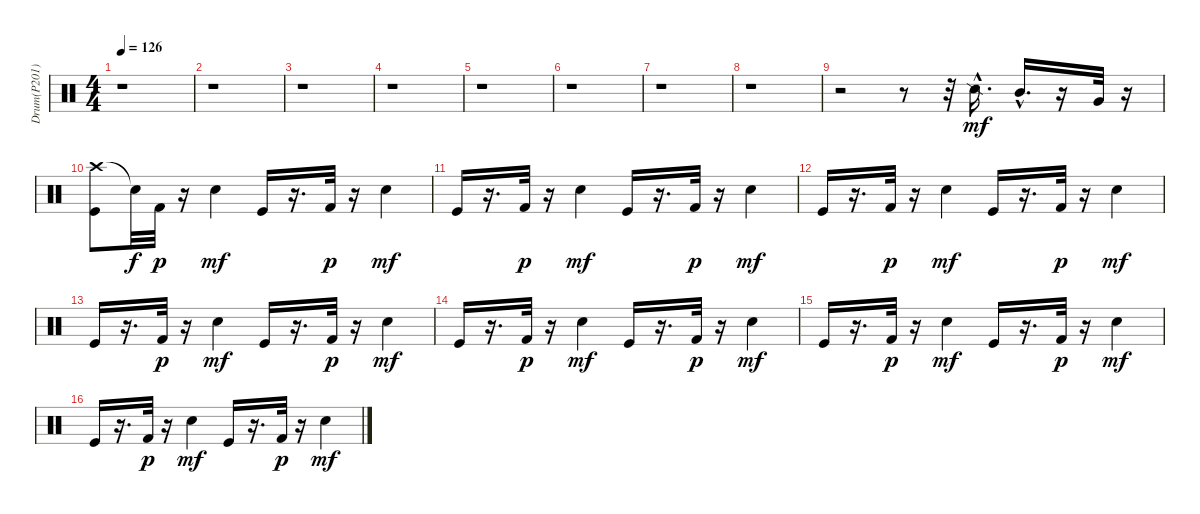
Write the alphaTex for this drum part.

\track ("Drum(P201)" "Drum(P201)") {instrument percussion}
\staff {score}
\articulation defaults
\ts (4 4)
\tempo 126
\clef neutral
\ks c
r.1{dy mf} |
r.1 |
r.1 |
r.1 |
r.1 |
r.1 |
r.1 |
r.1 |
r.2 r.8 r.32 "Snare (side stick) 2"{hac}.16{d} "Mid Tom (hit)"{hac}.16{d} r.16 "Very Low Tom (hit)".32 r.16 |
("Crash high (hit)" "Kick (hit)").8 "Snare (hit)"{t}.32{dy f} "Kick (hit) 2".32{dy p} r.16 "Snare (hit) 2".4{dy mf} "Kick (hit)".16 r.16{d} "Kick (hit) 2".32{dy p} r.16 "Snare (hit) 2".4{dy mf} |
"Kick (hit)".16 r.16{d} "Kick (hit) 2".32{dy p} r.16 "Snare (hit) 2".4{dy mf} "Kick (hit)".16 r.16{d} "Kick (hit) 2".32{dy p} r.16 "Snare (hit) 2".4{dy mf} |
"Kick (hit)".16 r.16{d} "Kick (hit) 2".32{dy p} r.16 "Snare (hit) 2".4{dy mf} "Kick (hit)".16 r.16{d} "Kick (hit) 2".32{dy p} r.16 "Snare (hit) 2".4{dy mf} |
"Kick (hit)".16 r.16{d} "Kick (hit) 2".32{dy p} r.16 "Snare (hit) 2".4{dy mf} "Kick (hit)".16 r.16{d} "Kick (hit) 2".32{dy p} r.16 "Snare (hit) 2".4{dy mf} |
"Kick (hit)".16 r.16{d} "Kick (hit) 2".32{dy p} r.16 "Snare (hit) 2".4{dy mf} "Kick (hit)".16 r.16{d} "Kick (hit) 2".32{dy p} r.16 "Snare (hit) 2".4{dy mf} |
"Kick (hit)".16 r.16{d} "Kick (hit) 2".32{dy p} r.16 "Snare (hit) 2".4{dy mf} "Kick (hit)".16 r.16{d} "Kick (hit) 2".32{dy p} r.16 "Snare (hit) 2".4{dy mf} |
"Kick (hit)".16 r.16{d} "Kick (hit) 2".32{dy p} r.16 "Snare (hit) 2".4{dy mf} "Kick (hit)".16 r.16{d} "Kick (hit) 2".32{dy p} r.16 "Snare (hit) 2".4{dy mf}
